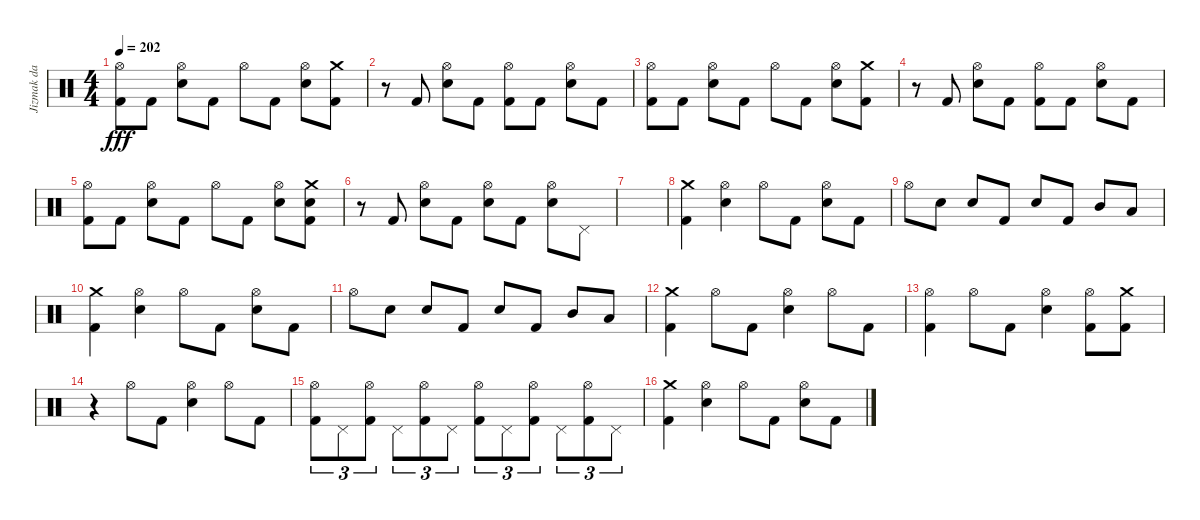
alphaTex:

\track ("Jizmak da Gusha" "Jizmak da ") {instrument percussion}
\staff {score}
\articulation defaults
\ts (4 4)
\tempo 202
\clef neutral
\ks c
("Hi-Hat (open)" "Kick (hit) 2").8{dy fff} "Kick (hit) 2".8 ("Hi-Hat (open)" "Electric Snare (hit)").8 "Kick (hit) 2".8 "Hi-Hat (open)".8 "Kick (hit) 2".8 ("Hi-Hat (open)" "Electric Snare (hit)").8 ("Crash medium (hit)" "Kick (hit) 2").8 |
r.8 "Kick (hit) 2".8 ("Hi-Hat (open)" "Electric Snare (hit)").8 "Kick (hit) 2".8 ("Hi-Hat (open)" "Kick (hit) 2").8 "Kick (hit) 2".8 ("Hi-Hat (open)" "Electric Snare (hit)").8 "Kick (hit) 2".8 |
("Hi-Hat (open)" "Kick (hit) 2").8 "Kick (hit) 2".8 ("Hi-Hat (open)" "Electric Snare (hit)").8 "Kick (hit) 2".8 "Hi-Hat (open)".8 "Kick (hit) 2".8 ("Hi-Hat (open)" "Electric Snare (hit)").8 ("Crash medium (hit)" "Kick (hit) 2").8 |
r.8 "Kick (hit) 2".8 ("Hi-Hat (open)" "Electric Snare (hit)").8 "Kick (hit) 2".8 ("Hi-Hat (open)" "Kick (hit) 2").8 "Kick (hit) 2".8 ("Hi-Hat (open)" "Electric Snare (hit)").8 "Kick (hit) 2".8 |
("Hi-Hat (open)" "Kick (hit) 2").8 "Kick (hit) 2".8 ("Hi-Hat (open)" "Electric Snare (hit)").8 "Kick (hit) 2".8 "Hi-Hat (open)".8 "Kick (hit) 2".8 ("Hi-Hat (open)" "Electric Snare (hit)").8 ("Crash medium (hit)" "Electric Snare (hit)" "Kick (hit) 2").8 |
r.8 "Kick (hit) 2".8 ("Hi-Hat (open)" "Electric Snare (hit)").8 "Kick (hit) 2".8 ("Hi-Hat (open)" "Electric Snare (hit)").8 "Kick (hit) 2".8 ("Hi-Hat (open)" "Electric Snare (hit)").8 "Pedal Hi-Hat (hit)".8 |
|
("Crash medium (hit)" "Kick (hit) 2").4 ("Hi-Hat (open)" "Electric Snare (hit)").4 "Hi-Hat (open)".8 "Kick (hit) 2".8 ("Hi-Hat (open)" "Electric Snare (hit)").8 "Kick (hit) 2".8 |
"Hi-Hat (open)".8 "Electric Snare (hit)".8 "Electric Snare (hit)".8 "Kick (hit) 2".8 "Electric Snare (hit)".8 "Kick (hit) 2".8 "Mid Tom (hit)".8 "Low Tom (hit)".8 |
("Crash medium (hit)" "Kick (hit) 2").4 ("Hi-Hat (open)" "Electric Snare (hit)").4 "Hi-Hat (open)".8 "Kick (hit) 2".8 ("Hi-Hat (open)" "Electric Snare (hit)").8 "Kick (hit) 2".8 |
"Hi-Hat (open)".8 "Electric Snare (hit)".8 "Electric Snare (hit)".8 "Kick (hit) 2".8 "Electric Snare (hit)".8 "Kick (hit) 2".8 "Mid Tom (hit)".8 "Low Tom (hit)".8 |
("Crash medium (hit)" "Kick (hit) 2").4 "Hi-Hat (open)".8 "Kick (hit) 2".8 ("Hi-Hat (open)" "Electric Snare (hit)").4 "Hi-Hat (open)".8 "Kick (hit) 2".8 |
("Hi-Hat (open)" "Kick (hit) 2").4 "Hi-Hat (open)".8 "Kick (hit) 2".8 ("Hi-Hat (open)" "Electric Snare (hit)").4 ("Hi-Hat (open)" "Kick (hit) 2").8 ("Crash medium (hit)" "Kick (hit) 2").8 |
r.4 "Hi-Hat (open)".8 "Kick (hit) 2".8 ("Hi-Hat (open)" "Electric Snare (hit)").4 "Hi-Hat (open)".8 "Kick (hit) 2".8 |
("Hi-Hat (open)" "Kick (hit) 2").8{tu (3 2)} "Pedal Hi-Hat (hit)".8{tu (3 2)} ("Hi-Hat (open)" "Kick (hit) 2").8{tu (3 2)} "Pedal Hi-Hat (hit)".8{tu (3 2)} ("Hi-Hat (open)" "Kick (hit) 2").8{tu (3 2)} "Pedal Hi-Hat (hit)".8{tu (3 2)} ("Hi-Hat (open)" "Kick (hit) 2").8{tu (3 2)} "Pedal Hi-Hat (hit)".8{tu (3 2)} ("Hi-Hat (open)" "Kick (hit) 2").8{tu (3 2)} "Pedal Hi-Hat (hit)".8{tu (3 2)} ("Hi-Hat (open)" "Kick (hit) 2").8{tu (3 2)} "Pedal Hi-Hat (hit)".8{tu (3 2)} |
("Crash medium (hit)" "Kick (hit) 2").4 ("Hi-Hat (open)" "Electric Snare (hit)").4 "Hi-Hat (open)".8 "Kick (hit) 2".8 ("Hi-Hat (open)" "Electric Snare (hit)").8 "Kick (hit) 2".8
